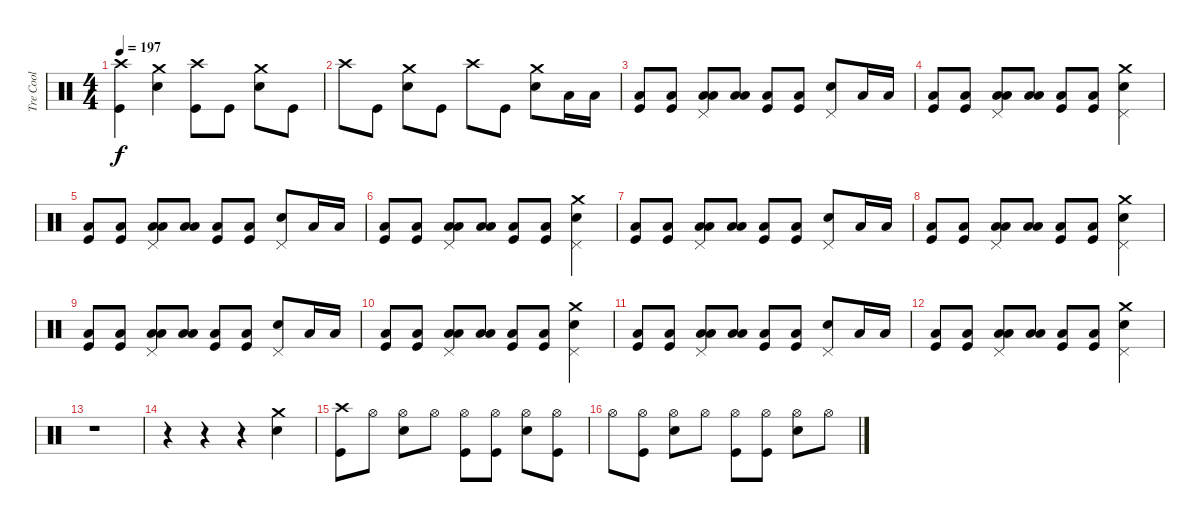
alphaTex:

\track ("Tre Cool" "Tre Cool") {instrument percussion}
\staff {score}
\articulation defaults
\ts (4 4)
\tempo 197
\clef neutral
\ks c
("Crash high (hit)" "Kick (hit)").4{dy f} ("Crash medium (hit)" "Electric Snare (hit)").4 ("Crash high (hit)" "Kick (hit)").8 "Kick (hit)".8 ("Crash medium (hit)" "Electric Snare (hit)").8 "Kick (hit)".8 |
"Crash high (hit)".8 "Kick (hit)".8 ("Crash medium (hit)" "Electric Snare (hit)").8 "Kick (hit)".8 "Crash high (hit)".8 "Kick (hit)".8 ("Crash medium (hit)" "Electric Snare (hit)").8 "Low Floor Tom (hit)".16 "Low Floor Tom (hit)".16 |
("Low Floor Tom (hit)" "Kick (hit)").8 ("Low Floor Tom (hit)" "Kick (hit)").8 ("Low Tom (hit)" "Low Floor Tom (hit)" "Pedal Hi-Hat (hit)").8 ("Low Tom (hit)" "Low Floor Tom (hit)").8 ("Low Floor Tom (hit)" "Kick (hit)").8 ("Low Floor Tom (hit)" "Kick (hit)").8 ("Electric Snare (hit)" "Pedal Hi-Hat (hit)").8 "Low Floor Tom (hit)".16 "Low Floor Tom (hit)".16 |
("Low Floor Tom (hit)" "Kick (hit)").8 ("Low Floor Tom (hit)" "Kick (hit)").8 ("Low Tom (hit)" "Low Floor Tom (hit)" "Pedal Hi-Hat (hit)").8 ("Low Tom (hit)" "Low Floor Tom (hit)").8 ("Low Floor Tom (hit)" "Kick (hit)").8 ("Low Floor Tom (hit)" "Kick (hit)").8 ("Crash medium (hit)" "Electric Snare (hit)" "Pedal Hi-Hat (hit)").4 |
("Low Floor Tom (hit)" "Kick (hit)").8 ("Low Floor Tom (hit)" "Kick (hit)").8 ("Low Tom (hit)" "Low Floor Tom (hit)" "Pedal Hi-Hat (hit)").8 ("Low Tom (hit)" "Low Floor Tom (hit)").8 ("Low Floor Tom (hit)" "Kick (hit)").8 ("Low Floor Tom (hit)" "Kick (hit)").8 ("Electric Snare (hit)" "Pedal Hi-Hat (hit)").8 "Low Floor Tom (hit)".16 "Low Floor Tom (hit)".16 |
("Low Floor Tom (hit)" "Kick (hit)").8 ("Low Floor Tom (hit)" "Kick (hit)").8 ("Low Tom (hit)" "Low Floor Tom (hit)" "Pedal Hi-Hat (hit)").8 ("Low Tom (hit)" "Low Floor Tom (hit)").8 ("Low Floor Tom (hit)" "Kick (hit)").8 ("Low Floor Tom (hit)" "Kick (hit)").8 ("Crash medium (hit)" "Electric Snare (hit)" "Pedal Hi-Hat (hit)").4 |
("Low Floor Tom (hit)" "Kick (hit)").8 ("Low Floor Tom (hit)" "Kick (hit)").8 ("Low Tom (hit)" "Low Floor Tom (hit)" "Pedal Hi-Hat (hit)").8 ("Low Tom (hit)" "Low Floor Tom (hit)").8 ("Low Floor Tom (hit)" "Kick (hit)").8 ("Low Floor Tom (hit)" "Kick (hit)").8 ("Electric Snare (hit)" "Pedal Hi-Hat (hit)").8 "Low Floor Tom (hit)".16 "Low Floor Tom (hit)".16 |
("Low Floor Tom (hit)" "Kick (hit)").8 ("Low Floor Tom (hit)" "Kick (hit)").8 ("Low Tom (hit)" "Low Floor Tom (hit)" "Pedal Hi-Hat (hit)").8 ("Low Tom (hit)" "Low Floor Tom (hit)").8 ("Low Floor Tom (hit)" "Kick (hit)").8 ("Low Floor Tom (hit)" "Kick (hit)").8 ("Crash medium (hit)" "Electric Snare (hit)" "Pedal Hi-Hat (hit)").4 |
("Low Floor Tom (hit)" "Kick (hit)").8 ("Low Floor Tom (hit)" "Kick (hit)").8 ("Low Tom (hit)" "Low Floor Tom (hit)" "Pedal Hi-Hat (hit)").8 ("Low Tom (hit)" "Low Floor Tom (hit)").8 ("Low Floor Tom (hit)" "Kick (hit)").8 ("Low Floor Tom (hit)" "Kick (hit)").8 ("Electric Snare (hit)" "Pedal Hi-Hat (hit)").8 "Low Floor Tom (hit)".16 "Low Floor Tom (hit)".16 |
("Low Floor Tom (hit)" "Kick (hit)").8 ("Low Floor Tom (hit)" "Kick (hit)").8 ("Low Tom (hit)" "Low Floor Tom (hit)" "Pedal Hi-Hat (hit)").8 ("Low Tom (hit)" "Low Floor Tom (hit)").8 ("Low Floor Tom (hit)" "Kick (hit)").8 ("Low Floor Tom (hit)" "Kick (hit)").8 ("Crash medium (hit)" "Electric Snare (hit)" "Pedal Hi-Hat (hit)").4 |
("Low Floor Tom (hit)" "Kick (hit)").8 ("Low Floor Tom (hit)" "Kick (hit)").8 ("Low Tom (hit)" "Low Floor Tom (hit)" "Pedal Hi-Hat (hit)").8 ("Low Tom (hit)" "Low Floor Tom (hit)").8 ("Low Floor Tom (hit)" "Kick (hit)").8 ("Low Floor Tom (hit)" "Kick (hit)").8 ("Electric Snare (hit)" "Pedal Hi-Hat (hit)").8 "Low Floor Tom (hit)".16 "Low Floor Tom (hit)".16 |
("Low Floor Tom (hit)" "Kick (hit)").8 ("Low Floor Tom (hit)" "Kick (hit)").8 ("Low Tom (hit)" "Low Floor Tom (hit)" "Pedal Hi-Hat (hit)").8 ("Low Tom (hit)" "Low Floor Tom (hit)").8 ("Low Floor Tom (hit)" "Kick (hit)").8 ("Low Floor Tom (hit)" "Kick (hit)").8 ("Crash medium (hit)" "Electric Snare (hit)" "Pedal Hi-Hat (hit)").4 |
r.1 |
r.4 r.4 r.4 ("Crash medium (hit)" "Electric Snare (hit)").4 |
("Crash high (hit)" "Kick (hit)").8 "Hi-Hat (open)".8 ("Hi-Hat (open)" "Electric Snare (hit)").8 "Hi-Hat (open)".8 ("Hi-Hat (open)" "Kick (hit)").8 ("Hi-Hat (open)" "Kick (hit)").8 ("Hi-Hat (open)" "Electric Snare (hit)").8 ("Hi-Hat (open)" "Kick (hit)").8 |
"Hi-Hat (open)".8 ("Hi-Hat (open)" "Kick (hit)").8 ("Hi-Hat (open)" "Electric Snare (hit)").8 "Hi-Hat (open)".8 ("Hi-Hat (open)" "Kick (hit)").8 ("Hi-Hat (open)" "Kick (hit)").8 ("Hi-Hat (open)" "Electric Snare (hit)").8 "Hi-Hat (open)".8
